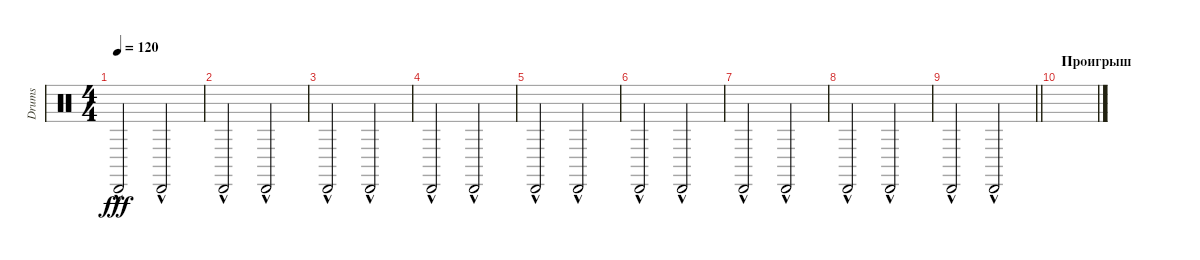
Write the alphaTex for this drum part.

\track ("Drums" "Drums") {instrument percussion}
\staff {score}
\articulation defaults
\ts (4 4)
\tempo 120
\clef neutral
\ks c "Cabasa (hit)"{hac}.2{dy fff} "Cabasa (hit)"{hac}.2
|
"Cabasa (hit)"{hac}.2 "Cabasa (hit)"{hac}.2 |
"Cabasa (hit)"{hac}.2 "Cabasa (hit)"{hac}.2 |
"Cabasa (hit)"{hac}.2 "Cabasa (hit)"{hac}.2 |
"Cabasa (hit)"{hac}.2 "Cabasa (hit)"{hac}.2 |
"Cabasa (hit)"{hac}.2 "Cabasa (hit)"{hac}.2 |
"Cabasa (hit)"{hac}.2 "Cabasa (hit)"{hac}.2 |
"Cabasa (hit)"{hac}.2 "Cabasa (hit)"{hac}.2 |
\barLineRight lightlight "Cabasa (hit)"{hac}.2 "Cabasa (hit)"{hac}.2
|
\section ("" "Проигрыш")
